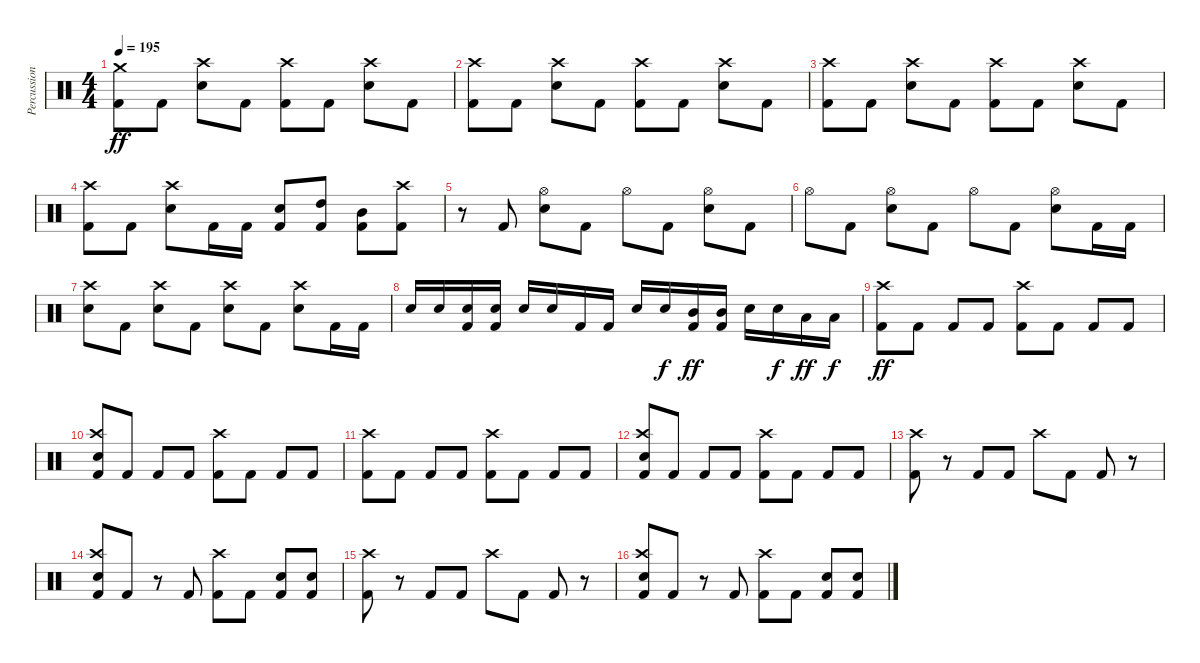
\track ("Percussion" "Percussion") {instrument percussion}
\staff {score}
\articulation defaults
\ts (4 4)
\tempo 195
\clef neutral
\ks c
("Crash medium (hit)" "Kick (hit) 2").8{dy ff} "Kick (hit) 2".8 ("Crash high (hit)" "Electric Snare (hit)").8 "Kick (hit) 2".8 ("Crash high (hit)" "Kick (hit) 2").8 "Kick (hit) 2".8 ("Crash high (hit)" "Electric Snare (hit)").8 "Kick (hit) 2".8 |
("Crash high (hit)" "Kick (hit) 2").8 "Kick (hit) 2".8 ("Crash high (hit)" "Electric Snare (hit)").8 "Kick (hit) 2".8 ("Crash high (hit)" "Kick (hit) 2").8 "Kick (hit) 2".8 ("Crash high (hit)" "Electric Snare (hit)").8 "Kick (hit) 2".8 |
("Crash high (hit)" "Kick (hit) 2").8 "Kick (hit) 2".8 ("Crash high (hit)" "Electric Snare (hit)").8 "Kick (hit) 2".8 ("Crash high (hit)" "Kick (hit) 2").8 "Kick (hit) 2".8 ("Crash high (hit)" "Electric Snare (hit)").8 "Kick (hit) 2".8 |
("Crash high (hit)" "Kick (hit) 2").8 "Kick (hit) 2".8 ("Crash high (hit)" "Electric Snare (hit)").8 "Kick (hit) 2".16 "Kick (hit) 2".16 ("Electric Snare (hit)" "Kick (hit) 2").8 ("High Tom (hit)" "Kick (hit) 2").8 ("Mid Tom (hit)" "Kick (hit) 2").8 ("Crash high (hit)" "Kick (hit) 2").8 |
r.8 "Kick (hit) 2".8 ("Hi-Hat (open)" "Electric Snare (hit)").8 "Kick (hit) 2".8 "Hi-Hat (open)".8 "Kick (hit) 2".8 ("Hi-Hat (open)" "Electric Snare (hit)").8 "Kick (hit) 2".8 |
"Hi-Hat (open)".8 "Kick (hit) 2".8 ("Hi-Hat (open)" "Electric Snare (hit)").8 "Kick (hit) 2".8 "Hi-Hat (open)".8 "Kick (hit) 2".8 ("Hi-Hat (open)" "Electric Snare (hit)").8 "Kick (hit) 2".16 "Kick (hit) 2".16 |
("Crash high (hit)" "Electric Snare (hit)").8 "Kick (hit) 2".8 ("Crash high (hit)" "Electric Snare (hit)").8 "Kick (hit) 2".8 ("Crash high (hit)" "Electric Snare (hit)").8 "Kick (hit) 2".8 ("Crash high (hit)" "Electric Snare (hit)").8 "Kick (hit) 2".16 "Kick (hit) 2".16 |
"Electric Snare (hit)".16 "Electric Snare (hit)".16 ("Electric Snare (hit)" "Kick (hit) 2").16 ("Electric Snare (hit)" "Kick (hit) 2").16 "Electric Snare (hit)".16 "Electric Snare (hit)".16 "Kick (hit) 2".16 "Kick (hit) 2".16 "Electric Snare (hit)".16 "Electric Snare (hit)".16{dy f} ("Mid Tom (hit)" "Kick (hit) 2").16{dy ff} ("Mid Tom (hit)" "Kick (hit) 2").16 "Electric Snare (hit)".16 "Electric Snare (hit)".16{dy f} "Low Tom (hit)".16{dy ff} "Low Tom (hit)".16{dy f} |
("Crash high (hit)" "Kick (hit) 2").8{dy ff} "Kick (hit) 2".8 "Kick (hit) 2".8 "Kick (hit) 2".8 ("Crash high (hit)" "Kick (hit) 2").8 "Kick (hit) 2".8 "Kick (hit) 2".8 "Kick (hit) 2".8 |
("Crash high (hit)" "Electric Snare (hit)" "Kick (hit) 2").8 "Kick (hit) 2".8 "Kick (hit) 2".8 "Kick (hit) 2".8 ("Crash high (hit)" "Kick (hit) 2").8 "Kick (hit) 2".8 "Kick (hit) 2".8 "Kick (hit) 2".8 |
("Crash high (hit)" "Kick (hit) 2").8 "Kick (hit) 2".8 "Kick (hit) 2".8 "Kick (hit) 2".8 ("Crash high (hit)" "Kick (hit) 2").8 "Kick (hit) 2".8 "Kick (hit) 2".8 "Kick (hit) 2".8 |
("Crash high (hit)" "Electric Snare (hit)" "Kick (hit) 2").8 "Kick (hit) 2".8 "Kick (hit) 2".8 "Kick (hit) 2".8 ("Crash high (hit)" "Kick (hit) 2").8 "Kick (hit) 2".8 "Kick (hit) 2".8 "Kick (hit) 2".8 |
("Crash high (hit)" "Kick (hit) 2").8 r.8 "Kick (hit) 2".8 "Kick (hit) 2".8 "Crash high (hit)".8 "Kick (hit) 2".8 "Kick (hit) 2".8 r.8 |
("Crash high (hit)" "Electric Snare (hit)" "Kick (hit) 2").8 "Kick (hit) 2".8 r.8 "Kick (hit) 2".8 ("Crash high (hit)" "Kick (hit) 2").8 "Kick (hit) 2".8 ("Electric Snare (hit)" "Kick (hit) 2").8 ("Electric Snare (hit)" "Kick (hit) 2").8 |
("Crash high (hit)" "Kick (hit) 2").8 r.8 "Kick (hit) 2".8 "Kick (hit) 2".8 "Crash high (hit)".8 "Kick (hit) 2".8 "Kick (hit) 2".8 r.8 |
("Crash high (hit)" "Electric Snare (hit)" "Kick (hit) 2").8 "Kick (hit) 2".8 r.8 "Kick (hit) 2".8 ("Crash high (hit)" "Kick (hit) 2").8 "Kick (hit) 2".8 ("Electric Snare (hit)" "Kick (hit) 2").8 ("Electric Snare (hit)" "Kick (hit) 2").8
